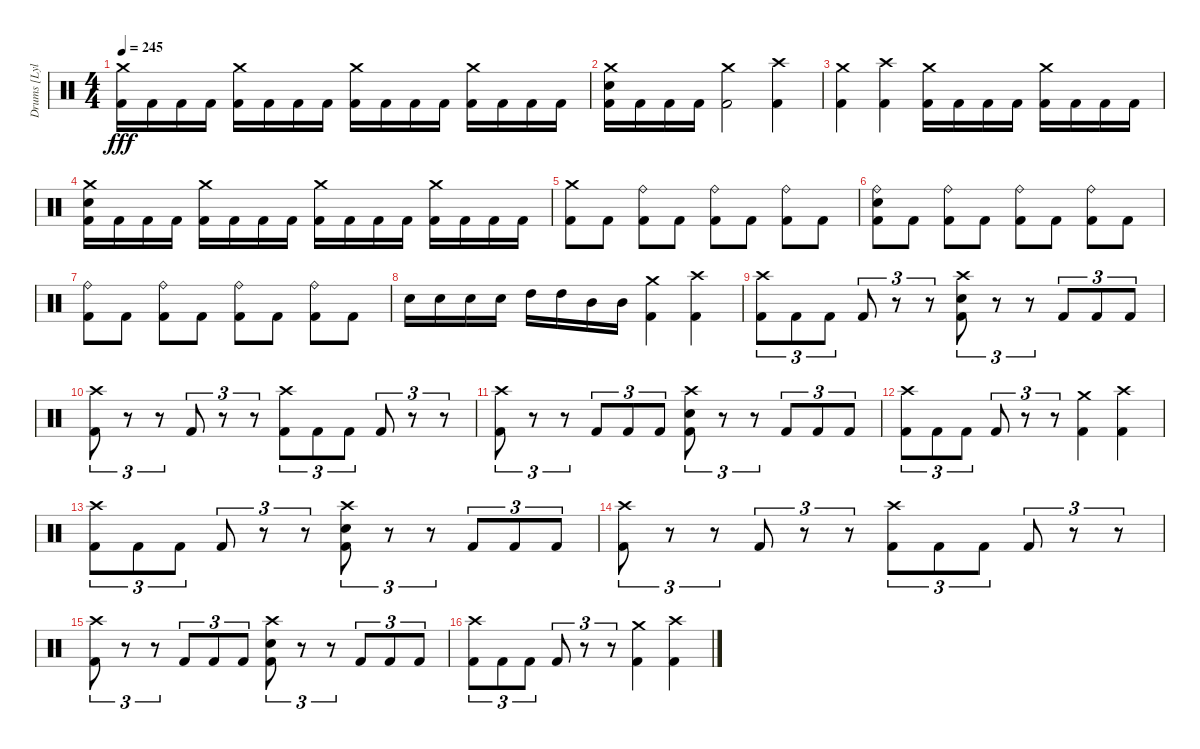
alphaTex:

\track ("Drums [Lyle Cooper]" "Drums [Lyl") {instrument percussion}
\staff {score}
\articulation defaults
\ts (4 4)
\tempo 245
\clef neutral
\ks c
("Crash medium (hit)" "Kick (hit) 2").16{dy fff} "Kick (hit) 2".16 "Kick (hit) 2".16 "Kick (hit) 2".16 ("Crash medium (hit)" "Kick (hit) 2").16 "Kick (hit) 2".16 "Kick (hit) 2".16 "Kick (hit) 2".16 ("Crash medium (hit)" "Kick (hit) 2").16 "Kick (hit) 2".16 "Kick (hit) 2".16 "Kick (hit) 2".16 ("Crash medium (hit)" "Kick (hit) 2").16 "Kick (hit) 2".16 "Kick (hit) 2".16 "Kick (hit) 2".16 |
("Crash medium (hit)" "Electric Snare (hit)" "Kick (hit) 2").16 "Kick (hit) 2".16 "Kick (hit) 2".16 "Kick (hit) 2".16 ("Crash medium (hit)" "Kick (hit) 2").2 ("Crash high (hit)" "Kick (hit) 2").4 |
("Crash medium (hit)" "Kick (hit) 2").4 ("Crash high (hit)" "Kick (hit) 2").4 ("Crash medium (hit)" "Kick (hit) 2").16 "Kick (hit) 2".16 "Kick (hit) 2".16 "Kick (hit) 2".16 ("Crash medium (hit)" "Kick (hit) 2").16 "Kick (hit) 2".16 "Kick (hit) 2".16 "Kick (hit) 2".16 |
("Crash medium (hit)" "Electric Snare (hit)" "Kick (hit) 2").16 "Kick (hit) 2".16 "Kick (hit) 2".16 "Kick (hit) 2".16 ("Crash medium (hit)" "Kick (hit) 2").16 "Kick (hit) 2".16 "Kick (hit) 2".16 "Kick (hit) 2".16 ("Crash medium (hit)" "Kick (hit) 2").16 "Kick (hit) 2".16 "Kick (hit) 2".16 "Kick (hit) 2".16 ("Crash medium (hit)" "Kick (hit) 2").16 "Kick (hit) 2".16 "Kick (hit) 2".16 "Kick (hit) 2".16 |
("Crash medium (hit)" "Kick (hit) 2").8 "Kick (hit) 2".8 ("Ride (bell)" "Kick (hit) 2").8 "Kick (hit) 2".8 ("Ride (bell)" "Kick (hit) 2").8 "Kick (hit) 2".8 ("Ride (bell)" "Kick (hit) 2").8 "Kick (hit) 2".8 |
("Ride (bell)" "Electric Snare (hit)" "Kick (hit) 2").8 "Kick (hit) 2".8 ("Ride (bell)" "Kick (hit) 2").8 "Kick (hit) 2".8 ("Ride (bell)" "Kick (hit) 2").8 "Kick (hit) 2".8 ("Ride (bell)" "Kick (hit) 2").8 "Kick (hit) 2".8 |
("Ride (bell)" "Kick (hit) 2").8 "Kick (hit) 2".8 ("Ride (bell)" "Kick (hit) 2").8 "Kick (hit) 2".8 ("Ride (bell)" "Kick (hit) 2").8 "Kick (hit) 2".8 ("Ride (bell)" "Kick (hit) 2").8 "Kick (hit) 2".8 |
"Electric Snare (hit)".16 "Electric Snare (hit)".16 "Electric Snare (hit)".16 "Electric Snare (hit)".16 "High Tom (hit)".16 "High Tom (hit)".16 "Mid Tom (hit)".16 "Mid Tom (hit)".16 ("Crash medium (hit)" "Kick (hit) 2").4 ("Crash high (hit)" "Kick (hit) 2").4 |
("Crash high (hit)" "Kick (hit) 2").8{tu (3 2)} "Kick (hit) 2".8{tu (3 2)} "Kick (hit) 2".8{tu (3 2)} "Kick (hit) 2".8{tu (3 2)} r.8{tu (3 2)} r.8{tu (3 2)} ("Crash high (hit)" "Electric Snare (hit)" "Kick (hit) 2").8{tu (3 2)} r.8{tu (3 2)} r.8{tu (3 2)} "Kick (hit) 2".8{tu (3 2)} "Kick (hit) 2".8{tu (3 2)} "Kick (hit) 2".8{tu (3 2)} |
("Crash high (hit)" "Kick (hit) 2").8{tu (3 2)} r.8{tu (3 2)} r.8{tu (3 2)} "Kick (hit) 2".8{tu (3 2)} r.8{tu (3 2)} r.8{tu (3 2)} ("Crash high (hit)" "Kick (hit) 2").8{tu (3 2)} "Kick (hit) 2".8{tu (3 2)} "Kick (hit) 2".8{tu (3 2)} "Kick (hit) 2".8{tu (3 2)} r.8{tu (3 2)} r.8{tu (3 2)} |
("Crash high (hit)" "Kick (hit) 2").8{tu (3 2)} r.8{tu (3 2)} r.8{tu (3 2)} "Kick (hit) 2".8{tu (3 2)} "Kick (hit) 2".8{tu (3 2)} "Kick (hit) 2".8{tu (3 2)} ("Crash high (hit)" "Electric Snare (hit)" "Kick (hit) 2").8{tu (3 2)} r.8{tu (3 2)} r.8{tu (3 2)} "Kick (hit) 2".8{tu (3 2)} "Kick (hit) 2".8{tu (3 2)} "Kick (hit) 2".8{tu (3 2)} |
("Crash high (hit)" "Kick (hit) 2").8{tu (3 2)} "Kick (hit) 2".8{tu (3 2)} "Kick (hit) 2".8{tu (3 2)} "Kick (hit) 2".8{tu (3 2)} r.8{tu (3 2)} r.8{tu (3 2)} ("Crash medium (hit)" "Kick (hit) 2").4 ("Crash high (hit)" "Kick (hit) 2").4 |
("Crash high (hit)" "Kick (hit) 2").8{tu (3 2)} "Kick (hit) 2".8{tu (3 2)} "Kick (hit) 2".8{tu (3 2)} "Kick (hit) 2".8{tu (3 2)} r.8{tu (3 2)} r.8{tu (3 2)} ("Crash high (hit)" "Electric Snare (hit)" "Kick (hit) 2").8{tu (3 2)} r.8{tu (3 2)} r.8{tu (3 2)} "Kick (hit) 2".8{tu (3 2)} "Kick (hit) 2".8{tu (3 2)} "Kick (hit) 2".8{tu (3 2)} |
("Crash high (hit)" "Kick (hit) 2").8{tu (3 2)} r.8{tu (3 2)} r.8{tu (3 2)} "Kick (hit) 2".8{tu (3 2)} r.8{tu (3 2)} r.8{tu (3 2)} ("Crash high (hit)" "Kick (hit) 2").8{tu (3 2)} "Kick (hit) 2".8{tu (3 2)} "Kick (hit) 2".8{tu (3 2)} "Kick (hit) 2".8{tu (3 2)} r.8{tu (3 2)} r.8{tu (3 2)} |
("Crash high (hit)" "Kick (hit) 2").8{tu (3 2)} r.8{tu (3 2)} r.8{tu (3 2)} "Kick (hit) 2".8{tu (3 2)} "Kick (hit) 2".8{tu (3 2)} "Kick (hit) 2".8{tu (3 2)} ("Crash high (hit)" "Electric Snare (hit)" "Kick (hit) 2").8{tu (3 2)} r.8{tu (3 2)} r.8{tu (3 2)} "Kick (hit) 2".8{tu (3 2)} "Kick (hit) 2".8{tu (3 2)} "Kick (hit) 2".8{tu (3 2)} |
("Crash high (hit)" "Kick (hit) 2").8{tu (3 2)} "Kick (hit) 2".8{tu (3 2)} "Kick (hit) 2".8{tu (3 2)} "Kick (hit) 2".8{tu (3 2)} r.8{tu (3 2)} r.8{tu (3 2)} ("Crash medium (hit)" "Kick (hit) 2").4 ("Crash high (hit)" "Kick (hit) 2").4
